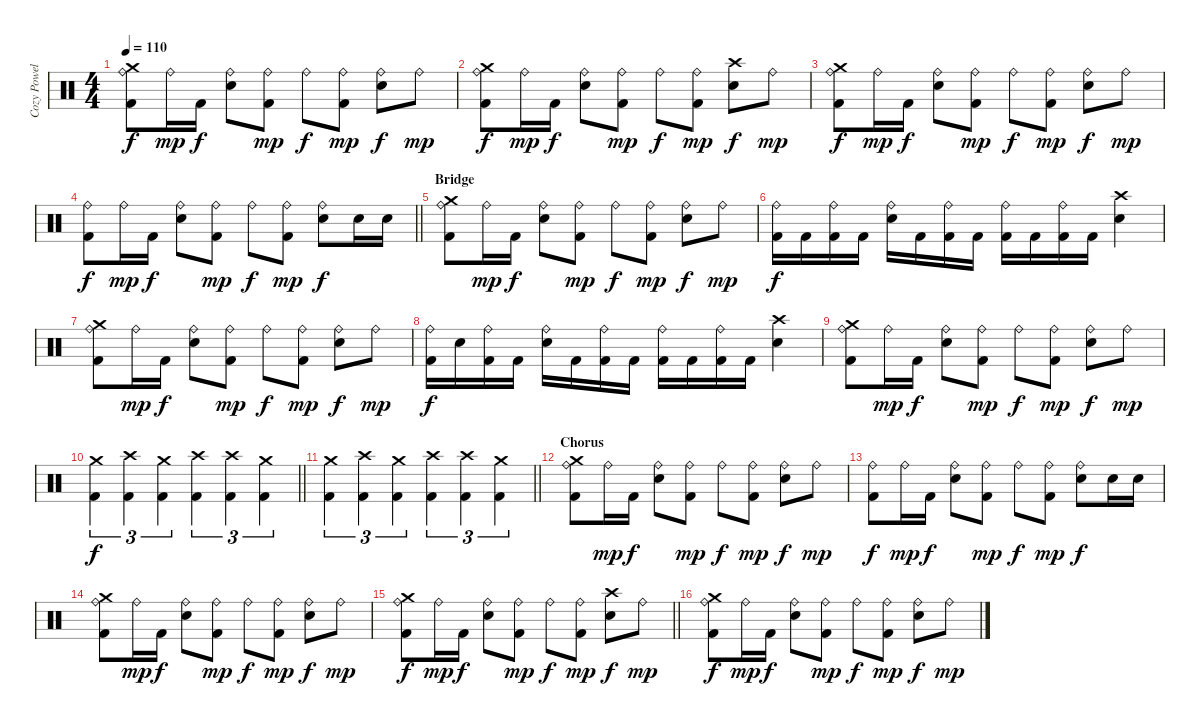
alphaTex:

\track ("Cozy Powell" "Cozy Powel") {instrument percussion}
\staff {score}
\articulation defaults
\ts (4 4)
\tempo 110
\clef neutral
\ks c
("Crash medium (hit)" "Ride (bell)" "Kick (hit) 2").8{dy f} "Ride (bell)".16{dy mp} "Kick (hit) 2".16{dy f} ("Ride (bell)" "Snare (hit) 2").8 ("Ride (bell)" "Kick (hit) 2").8{dy mp} "Ride (bell)".8{dy f} ("Ride (bell)" "Kick (hit) 2").8{dy mp} ("Ride (bell)" "Snare (hit) 2").8{dy f} "Ride (bell)".8{dy mp} |
("Crash medium (hit)" "Ride (bell)" "Kick (hit) 2").8{dy f} "Ride (bell)".16{dy mp} "Kick (hit) 2".16{dy f} ("Ride (bell)" "Snare (hit) 2").8 ("Ride (bell)" "Kick (hit) 2").8{dy mp} "Ride (bell)".8{dy f} ("Ride (bell)" "Kick (hit) 2").8{dy mp} ("Crash high (hit)" "Snare (hit) 2").8{dy f} "Ride (bell)".8{dy mp} |
("Crash medium (hit)" "Ride (bell)" "Kick (hit) 2").8{dy f} "Ride (bell)".16{dy mp} "Kick (hit) 2".16{dy f} ("Ride (bell)" "Snare (hit) 2").8 ("Ride (bell)" "Kick (hit) 2").8{dy mp} "Ride (bell)".8{dy f} ("Ride (bell)" "Kick (hit) 2").8{dy mp} ("Ride (bell)" "Snare (hit) 2").8{dy f} "Ride (bell)".8{dy mp} |
\barLineRight lightlight
("Ride (bell)" "Kick (hit) 2").8{dy f} "Ride (bell)".16{dy mp} "Kick (hit) 2".16{dy f} ("Ride (bell)" "Snare (hit) 2").8 ("Ride (bell)" "Kick (hit) 2").8{dy mp} "Ride (bell)".8{dy f} ("Ride (bell)" "Kick (hit) 2").8{dy mp} ("Ride (bell)" "Snare (hit) 2").8{dy f} "Snare (hit) 2".16 "Snare (hit) 2".16 |
\section ("" "Bridge")
("Crash medium (hit)" "Ride (bell)" "Kick (hit) 2").8 "Ride (bell)".16{dy mp} "Kick (hit) 2".16{dy f} ("Ride (bell)" "Snare (hit) 2").8 ("Ride (bell)" "Kick (hit) 2").8{dy mp} "Ride (bell)".8{dy f} ("Ride (bell)" "Kick (hit) 2").8{dy mp} ("Ride (bell)" "Snare (hit) 2").8{dy f} "Ride (bell)".8{dy mp} |
("Ride (bell)" "Kick (hit) 2").16{dy f} "Kick (hit) 2".16 ("Ride (bell)" "Kick (hit) 2").16 "Kick (hit) 2".16 ("Ride (bell)" "Snare (hit) 2").16 "Kick (hit) 2".16 ("Ride (bell)" "Kick (hit) 2").16 "Kick (hit) 2".16 ("Ride (bell)" "Kick (hit) 2").16 "Kick (hit) 2".16 ("Ride (bell)" "Kick (hit) 2").16 "Kick (hit) 2".16 ("Crash high (hit)" "Snare (hit) 2").4 |
("Crash medium (hit)" "Ride (bell)" "Kick (hit) 2").8 "Ride (bell)".16{dy mp} "Kick (hit) 2".16{dy f} ("Ride (bell)" "Snare (hit) 2").8 ("Ride (bell)" "Kick (hit) 2").8{dy mp} "Ride (bell)".8{dy f} ("Ride (bell)" "Kick (hit) 2").8{dy mp} ("Ride (bell)" "Snare (hit) 2").8{dy f} "Ride (bell)".8{dy mp} |
("Ride (bell)" "Kick (hit) 2").16{dy f} "Snare (hit) 2".16 ("Ride (bell)" "Kick (hit) 2").16 "Kick (hit) 2".16 ("Ride (bell)" "Snare (hit) 2").16 "Kick (hit) 2".16 ("Ride (bell)" "Kick (hit) 2").16 "Kick (hit) 2".16 ("Ride (bell)" "Kick (hit) 2").16 "Kick (hit) 2".16 ("Ride (bell)" "Kick (hit) 2").16 "Kick (hit) 2".16 ("Crash high (hit)" "Snare (hit) 2").4 |
("Crash medium (hit)" "Ride (bell)" "Kick (hit) 2").8 "Ride (bell)".16{dy mp} "Kick (hit) 2".16{dy f} ("Ride (bell)" "Snare (hit) 2").8 ("Ride (bell)" "Kick (hit) 2").8{dy mp} "Ride (bell)".8{dy f} ("Ride (bell)" "Kick (hit) 2").8{dy mp} ("Ride (bell)" "Snare (hit) 2").8{dy f} "Ride (bell)".8{dy mp} |
\barLineRight lightlight
("Crash medium (hit)" "Kick (hit) 2").4{tu (3 2) dy f} ("Crash high (hit)" "Kick (hit) 2").4{tu (3 2)} ("Crash medium (hit)" "Kick (hit) 2").4{tu (3 2)} ("Crash high (hit)" "Kick (hit) 2").4{tu (3 2)} ("Crash high (hit)" "Kick (hit) 2").4{tu (3 2)} ("Crash medium (hit)" "Kick (hit) 2").4{tu (3 2)} |
\barLineRight lightlight
("Crash medium (hit)" "Kick (hit) 2").4{tu (3 2)} ("Crash high (hit)" "Kick (hit) 2").4{tu (3 2)} ("Crash medium (hit)" "Kick (hit) 2").4{tu (3 2)} ("Crash high (hit)" "Kick (hit) 2").4{tu (3 2)} ("Crash high (hit)" "Kick (hit) 2").4{tu (3 2)} ("Crash medium (hit)" "Kick (hit) 2").4{tu (3 2)} |
\section ("" "Chorus")
("Crash medium (hit)" "Ride (bell)" "Kick (hit) 2").8 "Ride (bell)".16{dy mp} "Kick (hit) 2".16{dy f} ("Ride (bell)" "Snare (hit) 2").8 ("Ride (bell)" "Kick (hit) 2").8{dy mp} "Ride (bell)".8{dy f} ("Ride (bell)" "Kick (hit) 2").8{dy mp} ("Ride (bell)" "Snare (hit) 2").8{dy f} "Ride (bell)".8{dy mp} |
("Ride (bell)" "Kick (hit) 2").8{dy f} "Ride (bell)".16{dy mp} "Kick (hit) 2".16{dy f} ("Ride (bell)" "Snare (hit) 2").8 ("Ride (bell)" "Kick (hit) 2").8{dy mp} "Ride (bell)".8{dy f} ("Ride (bell)" "Kick (hit) 2").8{dy mp} ("Ride (bell)" "Snare (hit) 2").8{dy f} "Snare (hit) 2".16 "Snare (hit) 2".16 |
("Crash medium (hit)" "Ride (bell)" "Kick (hit) 2").8 "Ride (bell)".16{dy mp} "Kick (hit) 2".16{dy f} ("Ride (bell)" "Snare (hit) 2").8 ("Ride (bell)" "Kick (hit) 2").8{dy mp} "Ride (bell)".8{dy f} ("Ride (bell)" "Kick (hit) 2").8{dy mp} ("Ride (bell)" "Snare (hit) 2").8{dy f} "Ride (bell)".8{dy mp} |
\barLineRight lightlight
("Crash medium (hit)" "Ride (bell)" "Kick (hit) 2").8{dy f} "Ride (bell)".16{dy mp} "Kick (hit) 2".16{dy f} ("Ride (bell)" "Snare (hit) 2").8 ("Ride (bell)" "Kick (hit) 2").8{dy mp} "Ride (bell)".8{dy f} ("Ride (bell)" "Kick (hit) 2").8{dy mp} ("Crash high (hit)" "Snare (hit) 2").8{dy f} "Ride (bell)".8{dy mp} |
("Crash medium (hit)" "Ride (bell)" "Kick (hit) 2").8{dy f} "Ride (bell)".16{dy mp} "Kick (hit) 2".16{dy f} ("Ride (bell)" "Snare (hit) 2").8 ("Ride (bell)" "Kick (hit) 2").8{dy mp} "Ride (bell)".8{dy f} ("Ride (bell)" "Kick (hit) 2").8{dy mp} ("Ride (bell)" "Snare (hit) 2").8{dy f} "Ride (bell)".8{dy mp}
